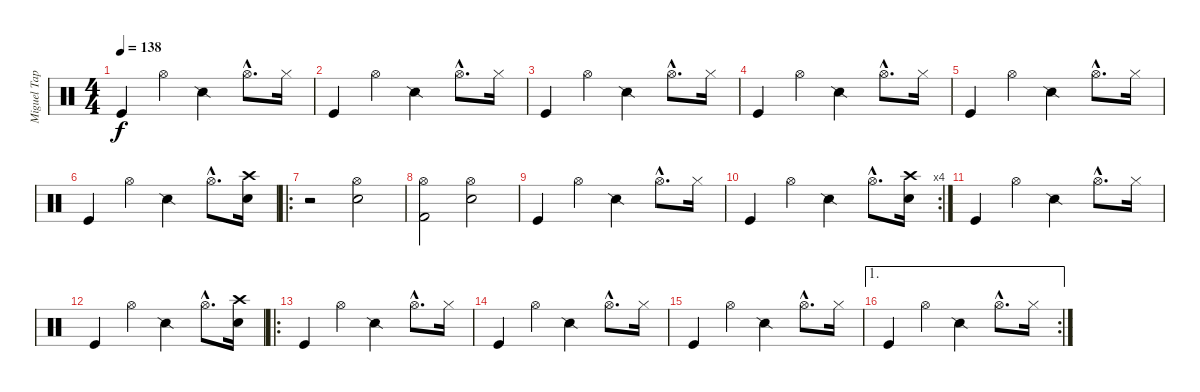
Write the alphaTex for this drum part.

\track ("Miguel Tapia (batería)" "Miguel Tap") {instrument percussion}
\staff {score}
\articulation defaults
\ts (4 4)
\tempo 138
\clef neutral
\ks c "Kick (hit)".4{dy f} "Hi-Hat (open)".4 "Snare (side stick) 2".4 "Hi-Hat (open)"{hac}.8{d} "Hi-Hat (closed)".16
|
"Kick (hit)".4 "Hi-Hat (open)".4 "Snare (side stick) 2".4 "Hi-Hat (open)"{hac}.8{d} "Hi-Hat (closed)".16 |
"Kick (hit)".4 "Hi-Hat (open)".4 "Snare (side stick) 2".4 "Hi-Hat (open)"{hac}.8{d} "Hi-Hat (closed)".16 |
"Kick (hit)".4 "Hi-Hat (open)".4 "Snare (side stick) 2".4 "Hi-Hat (open)"{hac}.8{d} "Hi-Hat (closed)".16 |
"Kick (hit)".4 "Hi-Hat (open)".4 "Snare (side stick) 2".4 "Hi-Hat (open)"{hac}.8{d} "Hi-Hat (closed)".16 |
"Kick (hit)".4 "Hi-Hat (open)".4 "Snare (side stick) 2".4 "Hi-Hat (open)"{hac}.8{d} ("Crash high (hit)" "Snare (hit) 2").16 |
\ro
r.2 ("Hi-Hat (open)" "Snare (hit) 2").2 |
("Hi-Hat (open)" "Kick (hit) 2").2 ("Hi-Hat (open)" "Electric Snare (hit)").2 |
"Kick (hit)".4 "Hi-Hat (open)".4 "Snare (side stick) 2".4 "Hi-Hat (open)"{hac}.8{d} "Hi-Hat (closed)".16 |
\rc 4 "Kick (hit)".4 "Hi-Hat (open)".4 "Snare (side stick) 2".4 "Hi-Hat (open)"{hac}.8{d}
("Crash high (hit)" "Snare (hit) 2").16 |
"Kick (hit)".4 "Hi-Hat (open)".4 "Snare (side stick) 2".4 "Hi-Hat (open)"{hac}.8{d} "Hi-Hat (closed)".16 |
"Kick (hit)".4 "Hi-Hat (open)".4 "Snare (side stick) 2".4 "Hi-Hat (open)"{hac}.8{d} ("Crash high (hit)" "Snare (hit) 2").16 |
\ro "Kick (hit)".4 "Hi-Hat (open)".4 "Snare (side stick) 2".4 "Hi-Hat (open)"{hac}.8{d} "Hi-Hat (closed)".16
|
"Kick (hit)".4 "Hi-Hat (open)".4 "Snare (side stick) 2".4 "Hi-Hat (open)"{hac}.8{d} "Hi-Hat (closed)".16 |
"Kick (hit)".4 "Hi-Hat (open)".4 "Snare (side stick) 2".4 "Hi-Hat (open)"{hac}.8{d} "Hi-Hat (closed)".16 |
\ae 1
\rc 2 "Kick (hit)".4 "Hi-Hat (open)".4 "Snare (side stick) 2".4 "Hi-Hat (open)"{hac}.8{d} "Hi-Hat (closed)".16
